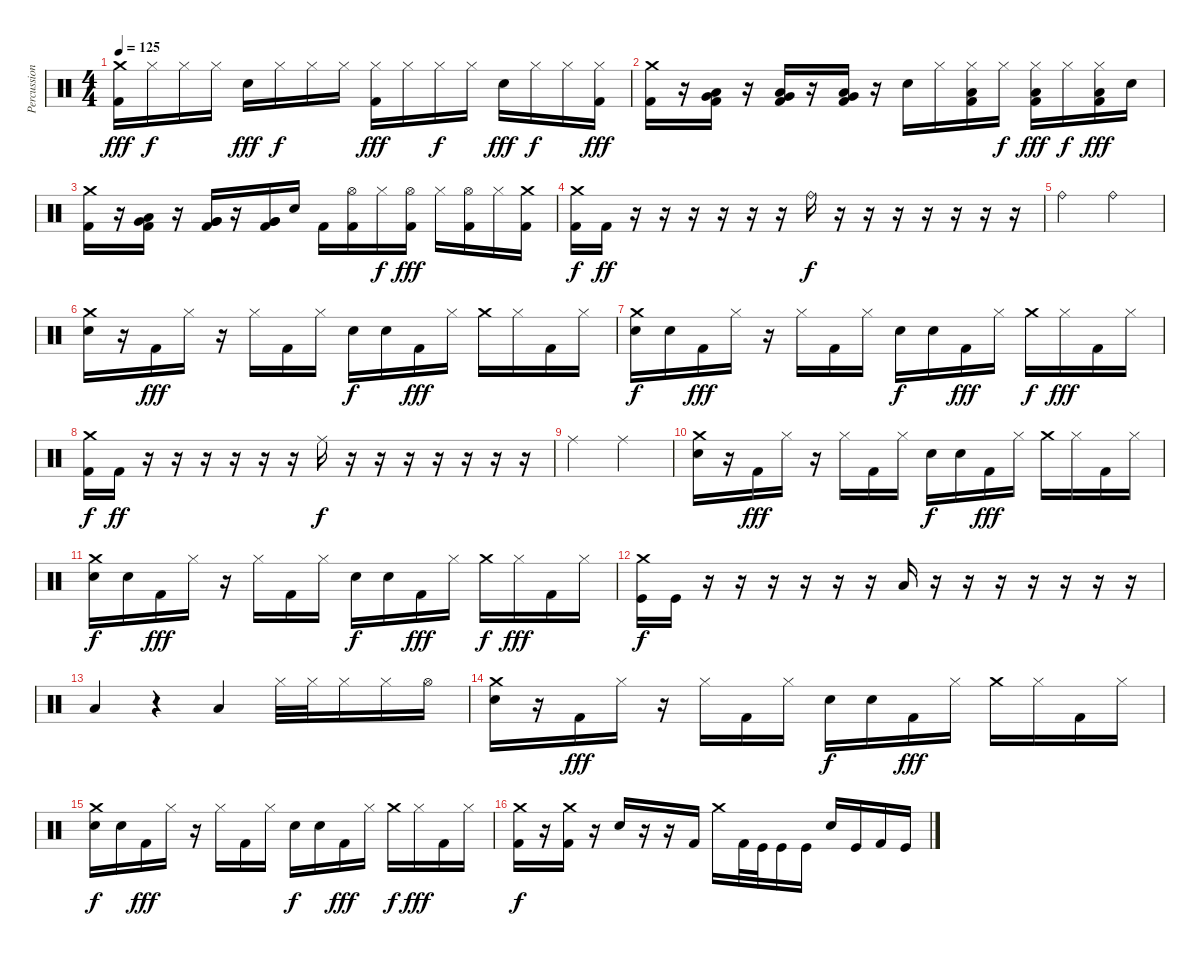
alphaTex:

\track ("Percussion" "Percussion") {instrument percussion}
\staff {score}
\articulation defaults
\ts (4 4)
\tempo 125
\clef neutral
\ks c
("Crash medium (hit)" "Kick (hit) 2").16{dy fff} "Hi-Hat (closed)".16{dy f} "Hi-Hat (closed)".16 "Hi-Hat (closed)".16 "Electric Snare (hit)".16{dy fff} "Hi-Hat (closed)".16{dy f} "Hi-Hat (closed)".16 "Hi-Hat (closed)".16 ("Hi-Hat (closed)" "Kick (hit) 2").16{dy fff} "Hi-Hat (closed)".16 "Hi-Hat (closed)".16{dy f} "Hi-Hat (closed)".16 "Electric Snare (hit)".16{dy fff} "Hi-Hat (closed)".16{dy f} "Hi-Hat (closed)".16 ("Hi-Hat (closed)" "Kick (hit) 2").16{dy fff} |
("Crash medium (hit)" "Kick (hit) 2").16 r.16 ("Very Low Tom (hit)" "Low Floor Tom (hit)" "Kick (hit) 2").16 r.16 ("Very Low Tom (hit)" "Low Floor Tom (hit)" "Kick (hit) 2").16 r.16 ("Very Low Tom (hit)" "Low Floor Tom (hit)" "Kick (hit) 2").16 r.16 "Electric Snare (hit)".16 "Hi-Hat (closed)".16 ("Hi-Hat (closed)" "Low Floor Tom (hit)" "Kick (hit) 2").16 "Hi-Hat (closed)".16{dy f} ("Hi-Hat (closed)" "Low Floor Tom (hit)" "Kick (hit) 2").16{dy fff} "Hi-Hat (closed)".16{dy f} ("Hi-Hat (closed)" "Low Floor Tom (hit)" "Kick (hit) 2").16{dy fff} "Electric Snare (hit)".16 |
("Crash medium (hit)" "Kick (hit) 2").16 r.16 ("Very Low Tom (hit)" "Low Floor Tom (hit)" "Kick (hit) 2").16 r.16 ("Very Low Tom (hit)" "Very Low Tom (hit)" "Kick (hit) 2").16 r.16 ("Very Low Tom (hit)" "Very Low Tom (hit)" "Kick (hit) 2").16 "Electric Snare (hit)".16 "Kick (hit) 2".16 ("Hi-Hat (open)" "Kick (hit) 2").16 "Hi-Hat (closed)".16{dy f} ("Hi-Hat (open)" "Kick (hit) 2").16{dy fff} "Hi-Hat (closed)".16 ("Hi-Hat (open)" "Kick (hit) 2").16 "Hi-Hat (closed)".16 ("Crash medium (hit)" "Kick (hit) 2").16 |
("Crash medium (hit)" "Kick (hit) 2").16{dy f} "Kick (hit) 2".16{dy ff} r.16 r.16 r.16 r.16 r.16 r.16 "Ride (bell)".16{dy f} r.16 r.16 r.16 r.16 r.16 r.16 r.16 |
"Ride (bell)".2 "Ride (bell)".2 |
("Crash medium (hit)" "Electric Snare (hit)").16 r.16 "Kick (hit) 2".16{dy fff} "Hi-Hat (closed)".16 r.16 "Hi-Hat (closed)".16 "Kick (hit) 2".16 "Hi-Hat (closed)".16 "Electric Snare (hit)".16{dy f} "Electric Snare (hit)".16 "Kick (hit) 2".16{dy fff} "Hi-Hat (closed)".16 "Crash medium (hit)".16 "Hi-Hat (closed)".16 "Kick (hit) 2".16 "Hi-Hat (closed)".16 |
("Crash medium (hit)" "Electric Snare (hit)").16{dy f} "Electric Snare (hit)".16 "Kick (hit) 2".16{dy fff} "Hi-Hat (closed)".16 r.16 "Hi-Hat (closed)".16 "Kick (hit) 2".16 "Hi-Hat (closed)".16 "Electric Snare (hit)".16{dy f} "Electric Snare (hit)".16 "Kick (hit) 2".16{dy fff} "Hi-Hat (closed)".16 "Crash medium (hit)".16{dy f} "Hi-Hat (closed)".16{dy fff} "Kick (hit) 2".16 "Hi-Hat (closed)".16 |
("Crash medium (hit)" "Kick (hit) 2").16{dy f} "Kick (hit) 2".16{dy ff} r.16 r.16 r.16 r.16 r.16 r.16 "Ride (middle)".16{dy f} r.16 r.16 r.16 r.16 r.16 r.16 r.16 |
"Ride (middle)".2 "Ride (middle)".2 |
("Crash medium (hit)" "Electric Snare (hit)").16 r.16 "Kick (hit) 2".16{dy fff} "Hi-Hat (closed)".16 r.16 "Hi-Hat (closed)".16 "Kick (hit) 2".16 "Hi-Hat (closed)".16 "Electric Snare (hit)".16{dy f} "Electric Snare (hit)".16 "Kick (hit) 2".16{dy fff} "Hi-Hat (closed)".16 "Crash medium (hit)".16 "Hi-Hat (closed)".16 "Kick (hit) 2".16 "Hi-Hat (closed)".16 |
("Crash medium (hit)" "Electric Snare (hit)").16{dy f} "Electric Snare (hit)".16 "Kick (hit) 2".16{dy fff} "Hi-Hat (closed)".16 r.16 "Hi-Hat (closed)".16 "Kick (hit) 2".16 "Hi-Hat (closed)".16 "Electric Snare (hit)".16{dy f} "Electric Snare (hit)".16 "Kick (hit) 2".16{dy fff} "Hi-Hat (closed)".16 "Crash medium (hit)".16{dy f} "Hi-Hat (closed)".16{dy fff} "Kick (hit) 2".16 "Hi-Hat (closed)".16 |
("Crash medium (hit)" "Kick (hit)").16{dy f} "Kick (hit)".16 r.16 r.16 r.16 r.16 r.16 r.16 "Low Floor Tom (hit)".16 r.16 r.16 r.16 r.16 r.16 r.16 r.16 |
"Low Floor Tom (hit)".4 r.4 "Low Floor Tom (hit)".4 "Hi-Hat (closed)".32 "Hi-Hat (closed)".32 "Hi-Hat (closed)".16 "Hi-Hat (closed)".16 "Hi-Hat (open)".16 |
("Crash medium (hit)" "Electric Snare (hit)").16 r.16 "Kick (hit) 2".16{dy fff} "Hi-Hat (closed)".16 r.16 "Hi-Hat (closed)".16 "Kick (hit) 2".16 "Hi-Hat (closed)".16 "Electric Snare (hit)".16{dy f} "Electric Snare (hit)".16 "Kick (hit) 2".16{dy fff} "Hi-Hat (closed)".16 "Crash medium (hit)".16 "Hi-Hat (closed)".16 "Kick (hit) 2".16 "Hi-Hat (closed)".16 |
("Crash medium (hit)" "Electric Snare (hit)").16{dy f} "Electric Snare (hit)".16 "Kick (hit) 2".16{dy fff} "Hi-Hat (closed)".16 r.16 "Hi-Hat (closed)".16 "Kick (hit) 2".16 "Hi-Hat (closed)".16 "Electric Snare (hit)".16{dy f} "Electric Snare (hit)".16 "Kick (hit) 2".16{dy fff} "Hi-Hat (closed)".16 "Crash medium (hit)".16{dy f} "Hi-Hat (closed)".16{dy fff} "Kick (hit) 2".16 "Hi-Hat (closed)".16 |
("Crash medium (hit)" "Kick (hit) 2").16{dy f} r.16 ("Crash medium (hit)" "Kick (hit) 2").16 r.16 "Electric Snare (hit)".16 r.16 r.16 "Kick (hit) 2".16 "Crash medium (hit)".16 "Kick (hit) 2".32 "Kick (hit)".32 "Kick (hit)".16 "Kick (hit)".16 "Electric Snare (hit)".16 "Kick (hit)".16 "Kick (hit) 2".16 "Kick (hit)".16
